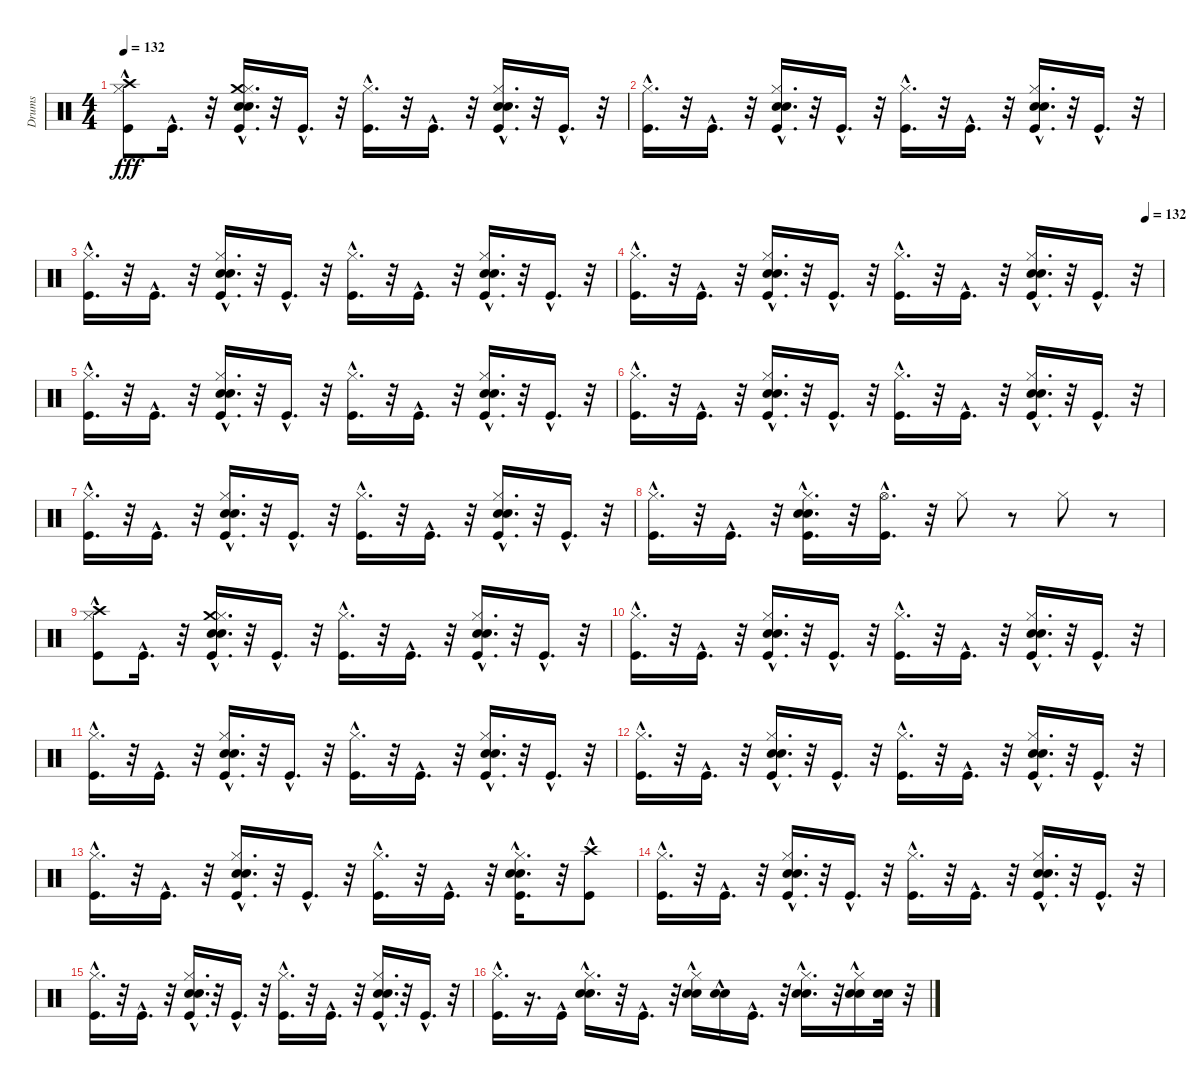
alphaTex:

\track ("Drums" "Drums") {instrument percussion}
\staff {score}
\articulation defaults
\ts (4 4)
\tempo 132
\clef neutral
\ks c
("Crash high (hit)" "Kick (hit)"{hac} "Hi-Hat (closed)"{hac}).8{dy fff} "Kick (hit)"{hac}.16{d} r.32 ("Crash medium (hit)"{hac} "Kick (hit)"{hac} "Snare (hit) 2"{hac} "Electric Snare (hit)"{hac} "Hi-Hat (closed)"{hac}).16{d} r.32 "Kick (hit)"{hac}.16{d} r.32 ("Kick (hit)"{hac} "Hi-Hat (closed)"{hac}).16{d} r.32 "Kick (hit)"{hac}.16{d} r.32 ("Kick (hit)"{hac} "Snare (hit) 2"{hac} "Electric Snare (hit)"{hac} "Hi-Hat (closed)"{hac}).16{d} r.32 "Kick (hit)"{hac}.16{d} r.32 |
("Kick (hit)"{hac} "Hi-Hat (closed)"{hac}).16{d} r.32 "Kick (hit)"{hac}.16{d} r.32 ("Kick (hit)"{hac} "Snare (hit) 2"{hac} "Electric Snare (hit)"{hac} "Hi-Hat (closed)"{hac}).16{d} r.32 "Kick (hit)"{hac}.16{d} r.32 ("Kick (hit)"{hac} "Hi-Hat (closed)"{hac}).16{d} r.32 "Kick (hit)"{hac}.16{d} r.32 ("Kick (hit)"{hac} "Snare (hit) 2"{hac} "Electric Snare (hit)"{hac} "Hi-Hat (closed)"{hac}).16{d} r.32 "Kick (hit)"{hac}.16{d} r.32 |
("Kick (hit)"{hac} "Hi-Hat (closed)"{hac}).16{d} r.32 "Kick (hit)"{hac}.16{d} r.32 ("Kick (hit)"{hac} "Snare (hit) 2"{hac} "Electric Snare (hit)"{hac} "Hi-Hat (closed)"{hac}).16{d} r.32 "Kick (hit)"{hac}.16{d} r.32 ("Kick (hit)"{hac} "Hi-Hat (closed)"{hac}).16{d} r.32 "Kick (hit)"{hac}.16{d} r.32 ("Kick (hit)"{hac} "Snare (hit) 2"{hac} "Electric Snare (hit)"{hac} "Hi-Hat (closed)"{hac}).16{d} r.32 "Kick (hit)"{hac}.16{d} r.32 |
\tempo (132 0.96875)
("Kick (hit)"{hac} "Hi-Hat (closed)"{hac}).16{d} r.32 "Kick (hit)"{hac}.16{d} r.32 ("Kick (hit)"{hac} "Snare (hit) 2"{hac} "Electric Snare (hit)"{hac} "Hi-Hat (closed)"{hac}).16{d} r.32 "Kick (hit)"{hac}.16{d} r.32 ("Kick (hit)"{hac} "Hi-Hat (closed)"{hac}).16{d} r.32 "Kick (hit)"{hac}.16{d} r.32 ("Kick (hit)"{hac} "Snare (hit) 2"{hac} "Electric Snare (hit)"{hac} "Hi-Hat (closed)"{hac}).16{d} r.32 "Kick (hit)"{hac}.16{d} r.32 |
("Kick (hit)"{hac} "Hi-Hat (closed)"{hac}).16{d} r.32 "Kick (hit)"{hac}.16{d} r.32 ("Kick (hit)"{hac} "Snare (hit) 2"{hac} "Electric Snare (hit)"{hac} "Hi-Hat (closed)"{hac}).16{d} r.32 "Kick (hit)"{hac}.16{d} r.32 ("Kick (hit)"{hac} "Hi-Hat (closed)"{hac}).16{d} r.32 "Kick (hit)"{hac}.16{d} r.32 ("Kick (hit)"{hac} "Snare (hit) 2"{hac} "Electric Snare (hit)"{hac} "Hi-Hat (closed)"{hac}).16{d} r.32 "Kick (hit)"{hac}.16{d} r.32 |
("Kick (hit)"{hac} "Hi-Hat (closed)"{hac}).16{d} r.32 "Kick (hit)"{hac}.16{d} r.32 ("Kick (hit)"{hac} "Snare (hit) 2"{hac} "Electric Snare (hit)"{hac} "Hi-Hat (closed)"{hac}).16{d} r.32 "Kick (hit)"{hac}.16{d} r.32 ("Kick (hit)"{hac} "Hi-Hat (closed)"{hac}).16{d} r.32 "Kick (hit)"{hac}.16{d} r.32 ("Kick (hit)"{hac} "Snare (hit) 2"{hac} "Electric Snare (hit)"{hac} "Hi-Hat (closed)"{hac}).16{d} r.32 "Kick (hit)"{hac}.16{d} r.32 |
("Kick (hit)"{hac} "Hi-Hat (closed)"{hac}).16{d} r.32 "Kick (hit)"{hac}.16{d} r.32 ("Kick (hit)"{hac} "Snare (hit) 2"{hac} "Electric Snare (hit)"{hac} "Hi-Hat (closed)"{hac}).16{d} r.32 "Kick (hit)"{hac}.16{d} r.32 ("Kick (hit)"{hac} "Hi-Hat (closed)"{hac}).16{d} r.32 "Kick (hit)"{hac}.16{d} r.32 ("Kick (hit)"{hac} "Snare (hit) 2"{hac} "Electric Snare (hit)"{hac} "Hi-Hat (closed)"{hac}).16{d} r.32 "Kick (hit)"{hac}.16{d} r.32 |
("Kick (hit)"{hac} "Hi-Hat (closed)"{hac}).16{d} r.32 "Kick (hit)"{hac}.16{d} r.32 ("Kick (hit)"{hac} "Snare (hit) 2"{hac} "Electric Snare (hit)"{hac} "Hi-Hat (closed)"{hac}).16{d} r.32 ("Kick (hit)"{hac} "Hi-Hat (open)"{hac}).16{d} r.32 "Hi-Hat (closed)".8 r.8 "Hi-Hat (closed)".8 r.8 |
("Crash high (hit)" "Kick (hit)"{hac} "Hi-Hat (closed)"{hac}).8 "Kick (hit)"{hac}.16{d} r.32 ("Crash medium (hit)"{hac} "Kick (hit)"{hac} "Snare (hit) 2"{hac} "Electric Snare (hit)"{hac} "Hi-Hat (closed)"{hac}).16{d} r.32 "Kick (hit)"{hac}.16{d} r.32 ("Kick (hit)"{hac} "Hi-Hat (closed)"{hac}).16{d} r.32 "Kick (hit)"{hac}.16{d} r.32 ("Kick (hit)"{hac} "Snare (hit) 2"{hac} "Electric Snare (hit)"{hac} "Hi-Hat (closed)"{hac}).16{d} r.32 "Kick (hit)"{hac}.16{d} r.32 |
("Kick (hit)"{hac} "Hi-Hat (closed)"{hac}).16{d} r.32 "Kick (hit)"{hac}.16{d} r.32 ("Kick (hit)"{hac} "Snare (hit) 2"{hac} "Electric Snare (hit)"{hac} "Hi-Hat (closed)"{hac}).16{d} r.32 "Kick (hit)"{hac}.16{d} r.32 ("Kick (hit)"{hac} "Hi-Hat (closed)"{hac}).16{d} r.32 "Kick (hit)"{hac}.16{d} r.32 ("Kick (hit)"{hac} "Snare (hit) 2"{hac} "Electric Snare (hit)"{hac} "Hi-Hat (closed)"{hac}).16{d} r.32 "Kick (hit)"{hac}.16{d} r.32 |
("Kick (hit)"{hac} "Hi-Hat (closed)"{hac}).16{d} r.32 "Kick (hit)"{hac}.16{d} r.32 ("Kick (hit)"{hac} "Snare (hit) 2"{hac} "Electric Snare (hit)"{hac} "Hi-Hat (closed)"{hac}).16{d} r.32 "Kick (hit)"{hac}.16{d} r.32 ("Kick (hit)"{hac} "Hi-Hat (closed)"{hac}).16{d} r.32 "Kick (hit)"{hac}.16{d} r.32 ("Kick (hit)"{hac} "Snare (hit) 2"{hac} "Electric Snare (hit)"{hac} "Hi-Hat (closed)"{hac}).16{d} r.32 "Kick (hit)"{hac}.16{d} r.32 |
("Kick (hit)"{hac} "Hi-Hat (closed)"{hac}).16{d} r.32 "Kick (hit)"{hac}.16{d} r.32 ("Kick (hit)"{hac} "Snare (hit) 2"{hac} "Electric Snare (hit)"{hac} "Hi-Hat (closed)"{hac}).16{d} r.32 "Kick (hit)"{hac}.16{d} r.32 ("Kick (hit)"{hac} "Hi-Hat (closed)"{hac}).16{d} r.32 "Kick (hit)"{hac}.16{d} r.32 ("Kick (hit)"{hac} "Snare (hit) 2"{hac} "Electric Snare (hit)"{hac} "Hi-Hat (closed)"{hac}).16{d} r.32 "Kick (hit)"{hac}.16{d} r.32 |
("Kick (hit)"{hac} "Hi-Hat (closed)"{hac}).16{d} r.32 "Kick (hit)"{hac}.16{d} r.32 ("Kick (hit)"{hac} "Snare (hit) 2"{hac} "Electric Snare (hit)"{hac} "Hi-Hat (closed)"{hac}).16{d} r.32 "Kick (hit)"{hac}.16{d} r.32 ("Kick (hit)"{hac} "Hi-Hat (closed)"{hac}).16{d} r.32 "Kick (hit)"{hac}.16{d} r.32 ("Kick (hit)"{hac} "Snare (hit) 2"{hac} "Electric Snare (hit)"{hac} "Hi-Hat (closed)"{hac}).16{d} r.32 ("Kick (hit)"{hac} "Crash high (hit)").8 |
("Kick (hit)"{hac} "Hi-Hat (closed)"{hac}).16{d} r.32 "Kick (hit)"{hac}.16{d} r.32 ("Kick (hit)"{hac} "Snare (hit) 2"{hac} "Electric Snare (hit)"{hac} "Hi-Hat (closed)"{hac}).16{d} r.32 "Kick (hit)"{hac}.16{d} r.32 ("Kick (hit)"{hac} "Hi-Hat (closed)"{hac}).16{d} r.32 "Kick (hit)"{hac}.16{d} r.32 ("Kick (hit)"{hac} "Snare (hit) 2"{hac} "Electric Snare (hit)"{hac} "Hi-Hat (closed)"{hac}).16{d} r.32 "Kick (hit)"{hac}.16{d} r.32 |
("Kick (hit)"{hac} "Hi-Hat (closed)"{hac}).16{d} r.32 "Kick (hit)"{hac}.16{d} r.32 ("Kick (hit)"{hac} "Snare (hit) 2"{hac} "Electric Snare (hit)"{hac} "Hi-Hat (closed)"{hac}).16{d} r.32 "Kick (hit)"{hac}.16{d} r.32 ("Kick (hit)"{hac} "Hi-Hat (closed)"{hac}).16{d} r.32 "Kick (hit)"{hac}.16{d} r.32 ("Kick (hit)"{hac} "Snare (hit) 2"{hac} "Electric Snare (hit)"{hac} "Hi-Hat (closed)"{hac}).16{d} r.32 "Kick (hit)"{hac}.16{d} r.32 |
("Kick (hit)"{hac} "Hi-Hat (closed)"{hac}).16{d} r.16{d} "Kick (hit)"{hac}.16 ("Snare (hit) 2"{hac} "Electric Snare (hit)"{hac} "Hi-Hat (closed)"{hac}).16{d} r.32 "Kick (hit)"{hac}.16{d} r.32 ("Snare (hit) 2" "Electric Snare (hit)" "Hi-Hat (closed)"{hac}).16 ("Snare (hit) 2"{hac} "Electric Snare (hit)"{hac}).16 "Kick (hit)"{hac}.16{d} r.32 ("Snare (hit) 2"{hac} "Electric Snare (hit)"{hac} "Hi-Hat (closed)"{hac}).16{d} r.32 ("Snare (hit) 2" "Electric Snare (hit)" "Hi-Hat (closed)"{hac}).16 ("Snare (hit) 2" "Electric Snare (hit)").32 r.32
